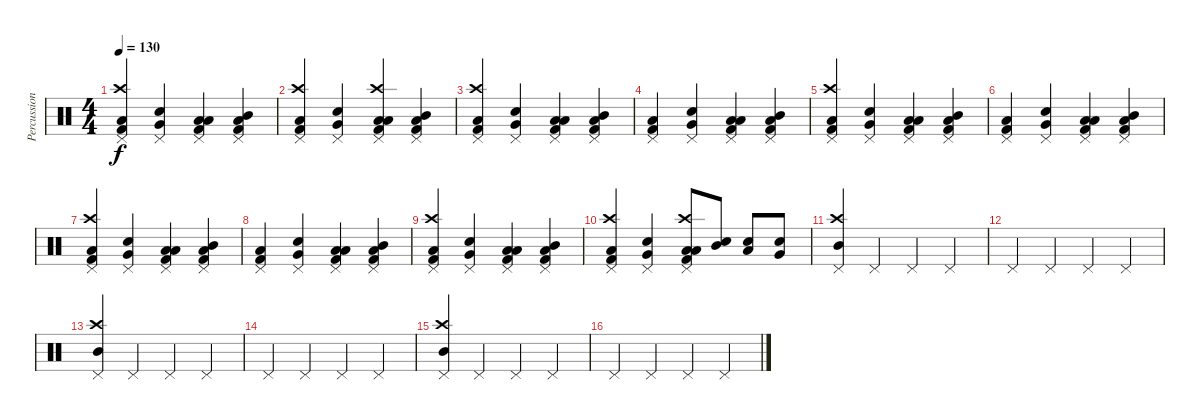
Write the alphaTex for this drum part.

\track ("Percussion" "Percussion") {instrument percussion}
\staff {score}
\articulation defaults
\ts (4 4)
\tempo 130
\clef neutral
\ks c
("Pedal Hi-Hat (hit)" "Crash high (hit)" "Kick (hit) 2" "Low Floor Tom (hit)").4{dy f} ("Pedal Hi-Hat (hit)" "Very Low Tom (hit)" "Snare (hit) 2").4 ("Pedal Hi-Hat (hit)" "Low Floor Tom (hit)" "Kick (hit) 2" "Low Tom (hit)").4 ("Pedal Hi-Hat (hit)" "Low Tom (hit)" "Kick (hit) 2" "Mid Tom (hit)").4 |
("Pedal Hi-Hat (hit)" "Crash high (hit)" "Kick (hit) 2" "Low Floor Tom (hit)").4 ("Pedal Hi-Hat (hit)" "Very Low Tom (hit)" "Snare (hit) 2").4 ("Pedal Hi-Hat (hit)" "Crash high (hit)" "Low Floor Tom (hit)" "Kick (hit) 2" "Low Tom (hit)").4 ("Pedal Hi-Hat (hit)" "Low Tom (hit)" "Kick (hit) 2" "Mid Tom (hit)").4 |
("Pedal Hi-Hat (hit)" "Crash high (hit)" "Kick (hit) 2" "Low Floor Tom (hit)").4 ("Pedal Hi-Hat (hit)" "Very Low Tom (hit)" "Snare (hit) 2").4 ("Pedal Hi-Hat (hit)" "Low Floor Tom (hit)" "Kick (hit) 2" "Low Tom (hit)").4 ("Pedal Hi-Hat (hit)" "Low Tom (hit)" "Kick (hit) 2" "Mid Tom (hit)").4 |
("Pedal Hi-Hat (hit)" "Kick (hit) 2" "Low Floor Tom (hit)").4 ("Pedal Hi-Hat (hit)" "Very Low Tom (hit)" "Snare (hit) 2").4 ("Pedal Hi-Hat (hit)" "Low Floor Tom (hit)" "Kick (hit) 2" "Low Tom (hit)").4 ("Pedal Hi-Hat (hit)" "Low Tom (hit)" "Kick (hit) 2" "Mid Tom (hit)").4 |
("Pedal Hi-Hat (hit)" "Crash high (hit)" "Kick (hit) 2" "Low Floor Tom (hit)").4 ("Pedal Hi-Hat (hit)" "Very Low Tom (hit)" "Snare (hit) 2").4 ("Pedal Hi-Hat (hit)" "Low Floor Tom (hit)" "Kick (hit) 2" "Low Tom (hit)").4 ("Pedal Hi-Hat (hit)" "Low Tom (hit)" "Kick (hit) 2" "Mid Tom (hit)").4 |
("Pedal Hi-Hat (hit)" "Kick (hit) 2" "Low Floor Tom (hit)").4 ("Pedal Hi-Hat (hit)" "Very Low Tom (hit)" "Snare (hit) 2").4 ("Pedal Hi-Hat (hit)" "Low Floor Tom (hit)" "Kick (hit) 2" "Low Tom (hit)").4 ("Pedal Hi-Hat (hit)" "Low Tom (hit)" "Kick (hit) 2" "Mid Tom (hit)").4 |
("Pedal Hi-Hat (hit)" "Crash high (hit)" "Kick (hit) 2" "Low Floor Tom (hit)").4 ("Pedal Hi-Hat (hit)" "Very Low Tom (hit)" "Snare (hit) 2").4 ("Pedal Hi-Hat (hit)" "Low Floor Tom (hit)" "Kick (hit) 2" "Low Tom (hit)").4 ("Pedal Hi-Hat (hit)" "Low Tom (hit)" "Kick (hit) 2" "Mid Tom (hit)").4 |
("Pedal Hi-Hat (hit)" "Kick (hit) 2" "Low Floor Tom (hit)").4 ("Pedal Hi-Hat (hit)" "Very Low Tom (hit)" "Snare (hit) 2").4 ("Pedal Hi-Hat (hit)" "Low Floor Tom (hit)" "Kick (hit) 2" "Low Tom (hit)").4 ("Pedal Hi-Hat (hit)" "Low Tom (hit)" "Kick (hit) 2" "Mid Tom (hit)").4 |
("Pedal Hi-Hat (hit)" "Crash high (hit)" "Kick (hit) 2" "Low Floor Tom (hit)").4 ("Pedal Hi-Hat (hit)" "Very Low Tom (hit)" "Snare (hit) 2").4 ("Pedal Hi-Hat (hit)" "Low Floor Tom (hit)" "Kick (hit) 2" "Low Tom (hit)").4 ("Pedal Hi-Hat (hit)" "Low Tom (hit)" "Kick (hit) 2" "Mid Tom (hit)").4 |
("Pedal Hi-Hat (hit)" "Crash high (hit)" "Kick (hit) 2" "Low Floor Tom (hit)").4 ("Pedal Hi-Hat (hit)" "Very Low Tom (hit)" "Snare (hit) 2").4 ("Pedal Hi-Hat (hit)" "Crash high (hit)" "Low Floor Tom (hit)" "Kick (hit) 2" "Low Tom (hit)").8 ("Snare (hit) 2" "Mid Tom (hit)").8 ("Snare (hit) 2" "Low Tom (hit)").8 ("Snare (hit) 2" "Very Low Tom (hit)").8 |
("Pedal Hi-Hat (hit)" "Crash high (hit)" "Mid Tom (hit)").4 "Pedal Hi-Hat (hit)".4 "Pedal Hi-Hat (hit)".4 "Pedal Hi-Hat (hit)".4 |
"Pedal Hi-Hat (hit)".4 "Pedal Hi-Hat (hit)".4 "Pedal Hi-Hat (hit)".4 "Pedal Hi-Hat (hit)".4 |
("Pedal Hi-Hat (hit)" "Crash high (hit)" "Mid Tom (hit)").4 "Pedal Hi-Hat (hit)".4 "Pedal Hi-Hat (hit)".4 "Pedal Hi-Hat (hit)".4 |
"Pedal Hi-Hat (hit)".4 "Pedal Hi-Hat (hit)".4 "Pedal Hi-Hat (hit)".4 "Pedal Hi-Hat (hit)".4 |
("Pedal Hi-Hat (hit)" "Crash high (hit)" "Mid Tom (hit)").4 "Pedal Hi-Hat (hit)".4 "Pedal Hi-Hat (hit)".4 "Pedal Hi-Hat (hit)".4 |
"Pedal Hi-Hat (hit)".4 "Pedal Hi-Hat (hit)".4 "Pedal Hi-Hat (hit)".4 "Pedal Hi-Hat (hit)".4
